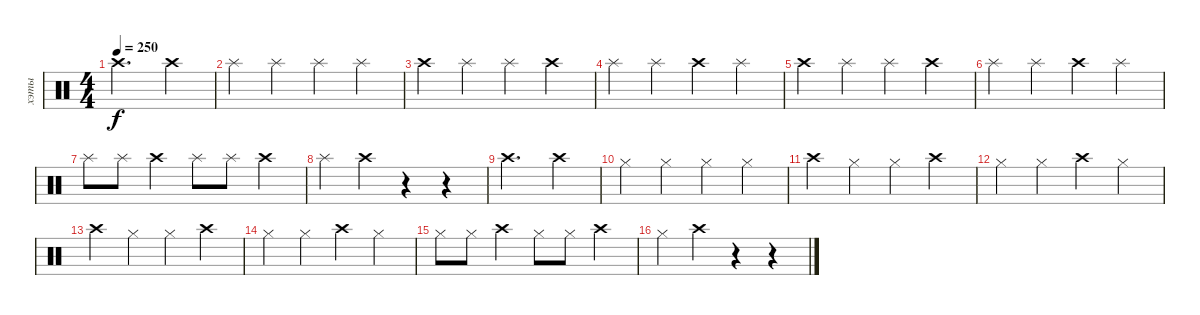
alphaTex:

\track ("хэты" "хэты") {instrument percussion}
\staff {score}
\articulation defaults
\ts (4 4)
\tempo 250
\clef neutral
\ks c "Crash high (hit)".2{d dy f} "Crash high (hit)".4
|
"Splash (hit)".4 "Splash (hit)".4 "Splash (hit)".4 "Splash (hit)".4 |
"Crash high (hit)".4 "Splash (hit)".4 "Splash (hit)".4 "Crash high (hit)".4 |
"Splash (hit)".4 "Splash (hit)".4 "Crash high (hit)".4 "Splash (hit)".4 |
"Crash high (hit)".4 "Splash (hit)".4 "Splash (hit)".4 "Crash high (hit)".4 |
"Splash (hit)".4 "Splash (hit)".4 "Crash high (hit)".4 "Splash (hit)".4 |
"Splash (hit)".8 "Splash (hit)".8 "Crash high (hit)".4 "Splash (hit)".8 "Splash (hit)".8 "Crash high (hit)".4 |
"Splash (hit)".4 "Crash high (hit)".4 r.4 r.4 |
"Crash high (hit)".2{d} "Crash high (hit)".4 |
"Hi-Hat (closed)".4 "Hi-Hat (closed)".4 "Hi-Hat (closed)".4 "Hi-Hat (closed)".4 |
"Crash high (hit)".4 "Hi-Hat (closed)".4 "Hi-Hat (closed)".4 "Crash high (hit)".4 |
"Hi-Hat (closed)".4 "Hi-Hat (closed)".4 "Crash high (hit)".4 "Hi-Hat (closed)".4 |
"Crash high (hit)".4 "Hi-Hat (closed)".4 "Hi-Hat (closed)".4 "Crash high (hit)".4 |
"Hi-Hat (closed)".4 "Hi-Hat (closed)".4 "Crash high (hit)".4 "Hi-Hat (closed)".4 |
"Hi-Hat (closed)".8 "Hi-Hat (closed)".8 "Crash high (hit)".4 "Hi-Hat (closed)".8 "Hi-Hat (closed)".8 "Crash high (hit)".4 |
"Hi-Hat (closed)".4 "Crash high (hit)".4 r.4 r.4
